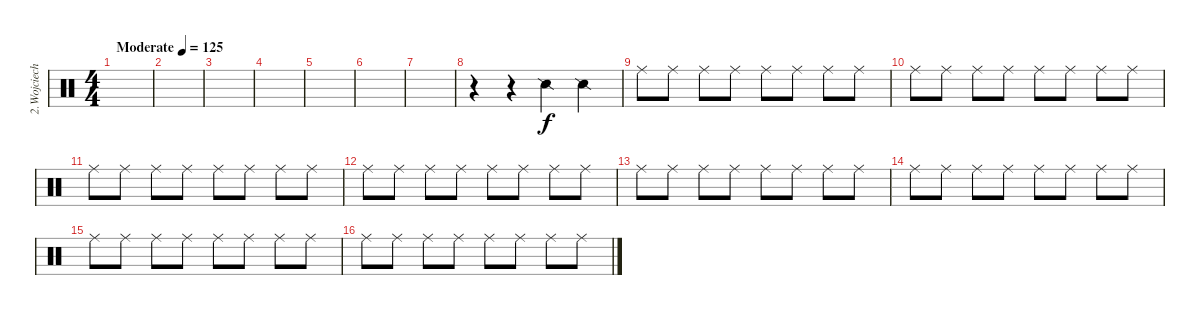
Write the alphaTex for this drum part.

\track ("2.Wojciech Kuderski (\"Lala\")" "2.Wojciech") {instrument percussion}
\staff {score}
\articulation defaults
\ts (4 4)
\tempo (125 "Moderate")
\clef neutral
\ks c
|
|
|
|
|
|
|
r.4 r.4 "Snare (side stick) 2".4 "Snare (side stick) 2".4 |
"Ride (middle)".8 "Ride (middle)".8 "Ride (middle)".8 "Ride (middle)".8 "Ride (middle)".8 "Ride (middle)".8 "Ride (middle)".8 "Ride (middle)".8 |
"Ride (middle)".8 "Ride (middle)".8 "Ride (middle)".8 "Ride (middle)".8 "Ride (middle)".8 "Ride (middle)".8 "Ride (middle)".8 "Ride (middle)".8 |
"Ride (middle)".8 "Ride (middle)".8 "Ride (middle)".8 "Ride (middle)".8 "Ride (middle)".8 "Ride (middle)".8 "Ride (middle)".8 "Ride (middle)".8 |
"Ride (middle)".8 "Ride (middle)".8 "Ride (middle)".8 "Ride (middle)".8 "Ride (middle)".8 "Ride (middle)".8 "Ride (middle)".8 "Ride (middle)".8 |
"Ride (middle)".8 "Ride (middle)".8 "Ride (middle)".8 "Ride (middle)".8 "Ride (middle)".8 "Ride (middle)".8 "Ride (middle)".8 "Ride (middle)".8 |
"Ride (middle)".8 "Ride (middle)".8 "Ride (middle)".8 "Ride (middle)".8 "Ride (middle)".8 "Ride (middle)".8 "Ride (middle)".8 "Ride (middle)".8 |
"Ride (middle)".8 "Ride (middle)".8 "Ride (middle)".8 "Ride (middle)".8 "Ride (middle)".8 "Ride (middle)".8 "Ride (middle)".8 "Ride (middle)".8 |
"Ride (middle)".8 "Ride (middle)".8 "Ride (middle)".8 "Ride (middle)".8 "Ride (middle)".8 "Ride (middle)".8 "Ride (middle)".8 "Ride (middle)".8
